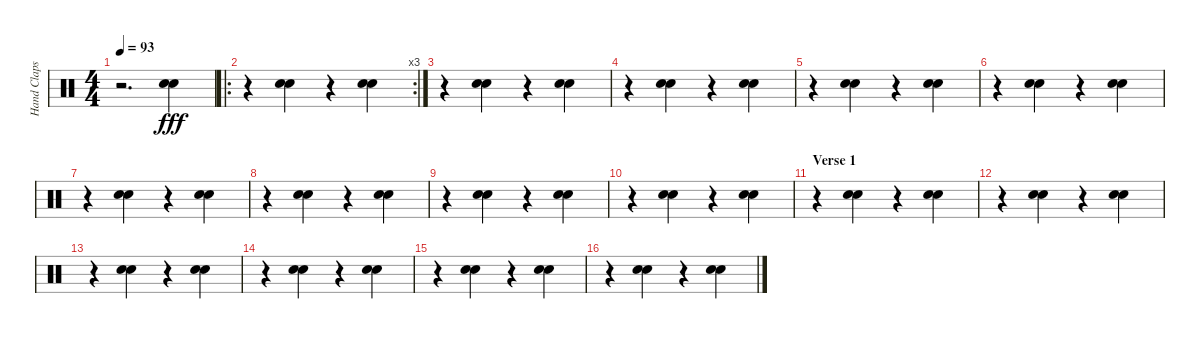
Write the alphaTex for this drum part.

\track ("Hand Claps" "Hand Claps") {instrument percussion}
\staff {score}
\articulation defaults
\ts (4 4)
\tempo 93
\clef neutral
\ks c
r.2{d dy fff} ("Hand Clap (hit)" "Hand Clap (hit)").4 |
\ro
\rc 3
r.4 ("Hand Clap (hit)" "Hand Clap (hit)").4 r.4 ("Hand Clap (hit)" "Hand Clap (hit)").4 |
r.4 ("Hand Clap (hit)" "Hand Clap (hit)").4 r.4 ("Hand Clap (hit)" "Hand Clap (hit)").4 |
r.4 ("Hand Clap (hit)" "Hand Clap (hit)").4 r.4 ("Hand Clap (hit)" "Hand Clap (hit)").4 |
r.4 ("Hand Clap (hit)" "Hand Clap (hit)").4 r.4 ("Hand Clap (hit)" "Hand Clap (hit)").4 |
r.4 ("Hand Clap (hit)" "Hand Clap (hit)").4 r.4 ("Hand Clap (hit)" "Hand Clap (hit)").4 |
r.4 ("Hand Clap (hit)" "Hand Clap (hit)").4 r.4 ("Hand Clap (hit)" "Hand Clap (hit)").4 |
r.4 ("Hand Clap (hit)" "Hand Clap (hit)").4 r.4 ("Hand Clap (hit)" "Hand Clap (hit)").4 |
r.4 ("Hand Clap (hit)" "Hand Clap (hit)").4 r.4 ("Hand Clap (hit)" "Hand Clap (hit)").4 |
r.4 ("Hand Clap (hit)" "Hand Clap (hit)").4 r.4 ("Hand Clap (hit)" "Hand Clap (hit)").4 |
\section ("" "Verse 1")
r.4 ("Hand Clap (hit)" "Hand Clap (hit)").4 r.4 ("Hand Clap (hit)" "Hand Clap (hit)").4 |
r.4 ("Hand Clap (hit)" "Hand Clap (hit)").4 r.4 ("Hand Clap (hit)" "Hand Clap (hit)").4 |
r.4 ("Hand Clap (hit)" "Hand Clap (hit)").4 r.4 ("Hand Clap (hit)" "Hand Clap (hit)").4 |
r.4 ("Hand Clap (hit)" "Hand Clap (hit)").4 r.4 ("Hand Clap (hit)" "Hand Clap (hit)").4 |
r.4 ("Hand Clap (hit)" "Hand Clap (hit)").4 r.4 ("Hand Clap (hit)" "Hand Clap (hit)").4 |
r.4 ("Hand Clap (hit)" "Hand Clap (hit)").4 r.4 ("Hand Clap (hit)" "Hand Clap (hit)").4
